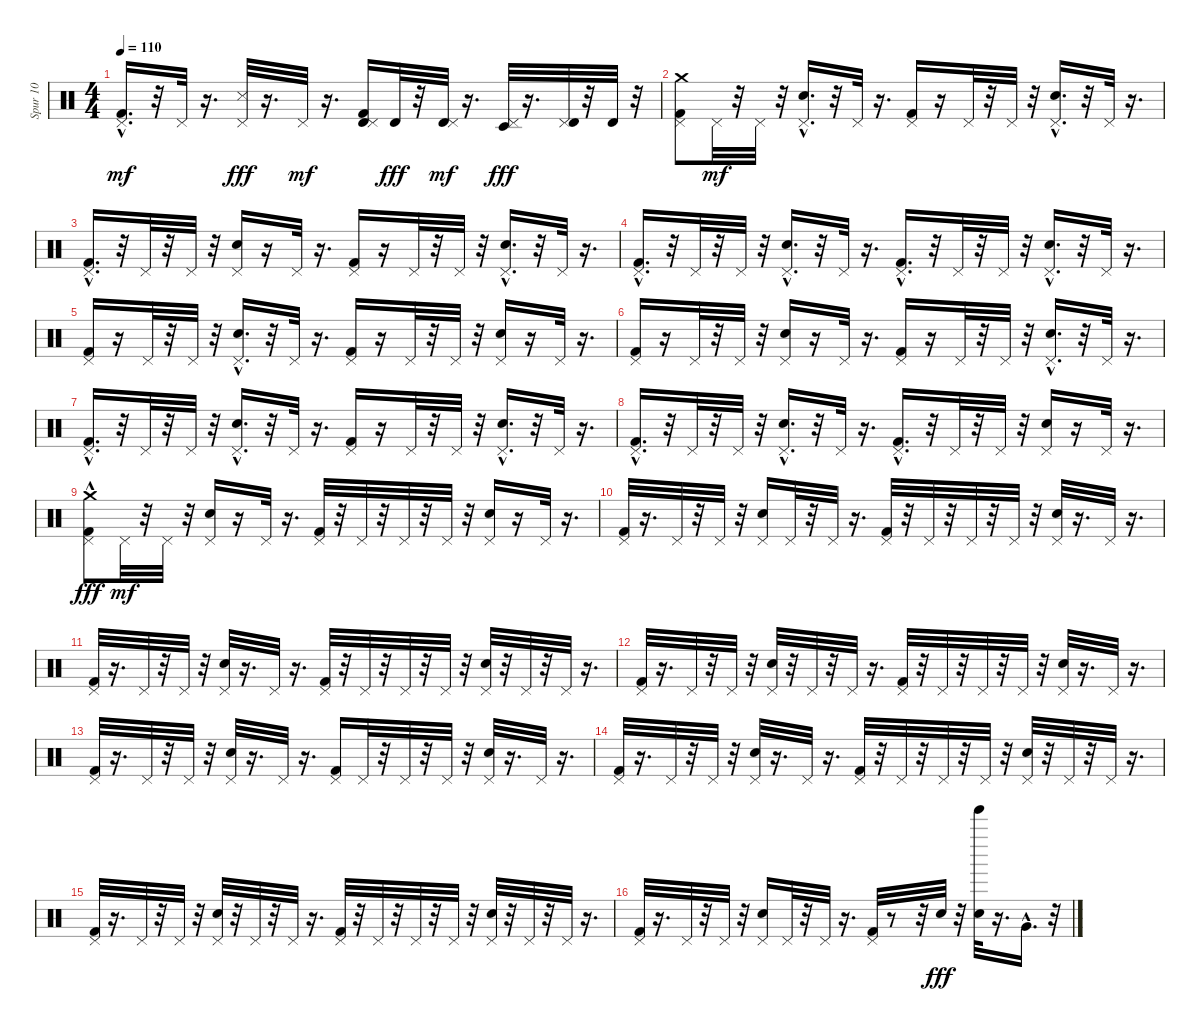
\track ("Spur 10" "Spur 10") {instrument percussion}
\staff {score}
\articulation defaults
\ts (4 4)
\tempo 110
\clef neutral
\ks c
("Kick (hit) 2"{hac} "Pedal Hi-Hat (hit)").16{d dy mf} r.32 "Pedal Hi-Hat (hit)".32 r.16{d} ("Pedal Hi-Hat (hit)" "Snare (side stick) 3").32{dy fff} r.16{d} "Pedal Hi-Hat (hit)".32{dy mf} r.16{d} ("Kick (hit) 2" "Timbale high (hit)" "Pedal Hi-Hat (hit)").16 "Timbale high (hit)".32{dy fff} r.32 ("Timbale high (hit)" "Pedal Hi-Hat (hit)").32{dy mf} r.16{d} ("Pedal Hi-Hat (hit)" "Timbale low (hit)").32{dy fff} r.16{d} ("Pedal Hi-Hat (hit)" "Timbale high (hit)").32 r.32 "Timbale high (hit)".32 r.32 |
("Kick (hit) 2" "Pedal Hi-Hat (hit)" "Crash medium (hit)").8 "Pedal Hi-Hat (hit)".32{dy mf} r.32 "Pedal Hi-Hat (hit)".32 r.32 ("Electric Snare (hit)"{hac} "Pedal Hi-Hat (hit)").16{d} r.32 "Pedal Hi-Hat (hit)".32 r.16{d} ("Kick (hit) 2" "Pedal Hi-Hat (hit)").16 r.16 "Pedal Hi-Hat (hit)".32 r.32 "Pedal Hi-Hat (hit)".32 r.32 ("Electric Snare (hit)"{hac} "Pedal Hi-Hat (hit)").16{d} r.32 "Pedal Hi-Hat (hit)".32 r.16{d} |
("Kick (hit) 2"{hac} "Pedal Hi-Hat (hit)").16{d} r.32 "Pedal Hi-Hat (hit)".32 r.32 "Pedal Hi-Hat (hit)".32 r.32 ("Electric Snare (hit)" "Pedal Hi-Hat (hit)").16 r.16 "Pedal Hi-Hat (hit)".32 r.16{d} ("Kick (hit) 2" "Pedal Hi-Hat (hit)").16 r.16 "Pedal Hi-Hat (hit)".32 r.32 "Pedal Hi-Hat (hit)".32 r.32 ("Electric Snare (hit)"{hac} "Pedal Hi-Hat (hit)").16{d} r.32 "Pedal Hi-Hat (hit)".32 r.16{d} |
("Kick (hit) 2"{hac} "Pedal Hi-Hat (hit)").16{d} r.32 "Pedal Hi-Hat (hit)".32 r.32 "Pedal Hi-Hat (hit)".32 r.32 ("Electric Snare (hit)"{hac} "Pedal Hi-Hat (hit)").16{d} r.32 "Pedal Hi-Hat (hit)".32 r.16{d} ("Kick (hit) 2"{hac} "Pedal Hi-Hat (hit)").16{d} r.32 "Pedal Hi-Hat (hit)".32 r.32 "Pedal Hi-Hat (hit)".32 r.32 ("Electric Snare (hit)"{hac} "Pedal Hi-Hat (hit)").16{d} r.32 "Pedal Hi-Hat (hit)".32 r.16{d} |
("Kick (hit) 2" "Pedal Hi-Hat (hit)").16 r.16 "Pedal Hi-Hat (hit)".32 r.32 "Pedal Hi-Hat (hit)".32 r.32 ("Electric Snare (hit)"{hac} "Pedal Hi-Hat (hit)").16{d} r.32 "Pedal Hi-Hat (hit)".32 r.16{d} ("Kick (hit) 2" "Pedal Hi-Hat (hit)").16 r.16 "Pedal Hi-Hat (hit)".32 r.32 "Pedal Hi-Hat (hit)".32 r.32 ("Electric Snare (hit)" "Pedal Hi-Hat (hit)").16 r.16 "Pedal Hi-Hat (hit)".32 r.16{d} |
("Kick (hit) 2" "Pedal Hi-Hat (hit)").16 r.16 "Pedal Hi-Hat (hit)".32 r.32 "Pedal Hi-Hat (hit)".32 r.32 ("Electric Snare (hit)" "Pedal Hi-Hat (hit)").16 r.16 "Pedal Hi-Hat (hit)".32 r.16{d} ("Kick (hit) 2" "Pedal Hi-Hat (hit)").16 r.16 "Pedal Hi-Hat (hit)".32 r.32 "Pedal Hi-Hat (hit)".32 r.32 ("Electric Snare (hit)"{hac} "Pedal Hi-Hat (hit)").16{d} r.32 "Pedal Hi-Hat (hit)".32 r.16{d} |
("Kick (hit) 2"{hac} "Pedal Hi-Hat (hit)").16{d} r.32 "Pedal Hi-Hat (hit)".32 r.32 "Pedal Hi-Hat (hit)".32 r.32 ("Electric Snare (hit)"{hac} "Pedal Hi-Hat (hit)").16{d} r.32 "Pedal Hi-Hat (hit)".32 r.16{d} ("Kick (hit) 2" "Pedal Hi-Hat (hit)").16 r.16 "Pedal Hi-Hat (hit)".32 r.32 "Pedal Hi-Hat (hit)".32 r.32 ("Electric Snare (hit)"{hac} "Pedal Hi-Hat (hit)").16{d} r.32 "Pedal Hi-Hat (hit)".32 r.16{d} |
("Kick (hit) 2"{hac} "Pedal Hi-Hat (hit)").16{d} r.32 "Pedal Hi-Hat (hit)".32 r.32 "Pedal Hi-Hat (hit)".32 r.32 ("Electric Snare (hit)"{hac} "Pedal Hi-Hat (hit)").16{d} r.32 "Pedal Hi-Hat (hit)".32 r.16{d} ("Kick (hit) 2"{hac} "Pedal Hi-Hat (hit)").16{d} r.32 "Pedal Hi-Hat (hit)".32 r.32 "Pedal Hi-Hat (hit)".32 r.32 ("Electric Snare (hit)" "Pedal Hi-Hat (hit)").16 r.16 "Pedal Hi-Hat (hit)".32 r.16{d} |
("Kick (hit) 2" "Pedal Hi-Hat (hit)" "Crash medium (hit)"{hac}).8{dy fff} "Pedal Hi-Hat (hit)".32{dy mf} r.32 "Pedal Hi-Hat (hit)".32 r.32 ("Electric Snare (hit)" "Pedal Hi-Hat (hit)").16 r.16 "Pedal Hi-Hat (hit)".32 r.16{d} ("Kick (hit) 2" "Pedal Hi-Hat (hit)").32 r.32 "Pedal Hi-Hat (hit)".32 r.32 "Pedal Hi-Hat (hit)".32 r.32 "Pedal Hi-Hat (hit)".32 r.32 ("Electric Snare (hit)" "Pedal Hi-Hat (hit)").16 r.16 "Pedal Hi-Hat (hit)".32 r.16{d} |
("Kick (hit) 2" "Pedal Hi-Hat (hit)").32 r.16{d} "Pedal Hi-Hat (hit)".32 r.32 "Pedal Hi-Hat (hit)".32 r.32 ("Electric Snare (hit)" "Pedal Hi-Hat (hit)").16 "Pedal Hi-Hat (hit)".32 r.32 "Pedal Hi-Hat (hit)".32 r.16{d} ("Kick (hit) 2" "Pedal Hi-Hat (hit)").32 r.32 "Pedal Hi-Hat (hit)".32 r.32 "Pedal Hi-Hat (hit)".32 r.32 "Pedal Hi-Hat (hit)".32 r.32 ("Electric Snare (hit)" "Pedal Hi-Hat (hit)").32 r.16{d} "Pedal Hi-Hat (hit)".32 r.16{d} |
("Kick (hit) 2" "Pedal Hi-Hat (hit)").32 r.16{d} "Pedal Hi-Hat (hit)".32 r.32 "Pedal Hi-Hat (hit)".32 r.32 ("Electric Snare (hit)" "Pedal Hi-Hat (hit)").32 r.16{d} "Pedal Hi-Hat (hit)".32 r.16{d} ("Kick (hit) 2" "Pedal Hi-Hat (hit)").32 r.32 "Pedal Hi-Hat (hit)".32 r.32 "Pedal Hi-Hat (hit)".32 r.32 "Pedal Hi-Hat (hit)".32 r.32 ("Electric Snare (hit)" "Pedal Hi-Hat (hit)").32 r.32 "Pedal Hi-Hat (hit)".32 r.32 "Pedal Hi-Hat (hit)".32 r.16{d} |
("Kick (hit) 2" "Pedal Hi-Hat (hit)").32 r.16{d} "Pedal Hi-Hat (hit)".32 r.32 "Pedal Hi-Hat (hit)".32 r.32 ("Electric Snare (hit)" "Pedal Hi-Hat (hit)").32 r.32 "Pedal Hi-Hat (hit)".32 r.32 "Pedal Hi-Hat (hit)".32 r.16{d} ("Kick (hit) 2" "Pedal Hi-Hat (hit)").32 r.32 "Pedal Hi-Hat (hit)".32 r.32 "Pedal Hi-Hat (hit)".32 r.32 "Pedal Hi-Hat (hit)".32 r.32 ("Electric Snare (hit)" "Pedal Hi-Hat (hit)").32 r.16{d} "Pedal Hi-Hat (hit)".32 r.16{d} |
("Kick (hit) 2" "Pedal Hi-Hat (hit)").32 r.16{d} "Pedal Hi-Hat (hit)".32 r.32 "Pedal Hi-Hat (hit)".32 r.32 ("Electric Snare (hit)" "Pedal Hi-Hat (hit)").32 r.16{d} "Pedal Hi-Hat (hit)".32 r.16{d} ("Kick (hit) 2" "Pedal Hi-Hat (hit)").16 "Pedal Hi-Hat (hit)".32 r.32 "Pedal Hi-Hat (hit)".32 r.32 "Pedal Hi-Hat (hit)".32 r.32 ("Electric Snare (hit)" "Pedal Hi-Hat (hit)").32 r.16{d} "Pedal Hi-Hat (hit)".32 r.16{d} |
("Kick (hit) 2" "Pedal Hi-Hat (hit)").32 r.16{d} "Pedal Hi-Hat (hit)".32 r.32 "Pedal Hi-Hat (hit)".32 r.32 ("Electric Snare (hit)" "Pedal Hi-Hat (hit)").32 r.16{d} "Pedal Hi-Hat (hit)".32 r.16{d} ("Kick (hit) 2" "Pedal Hi-Hat (hit)").32 r.32 "Pedal Hi-Hat (hit)".32 r.32 "Pedal Hi-Hat (hit)".32 r.32 "Pedal Hi-Hat (hit)".32 r.32 ("Electric Snare (hit)" "Pedal Hi-Hat (hit)").32 r.32 "Pedal Hi-Hat (hit)".32 r.32 "Pedal Hi-Hat (hit)".32 r.16{d} |
("Kick (hit) 2" "Pedal Hi-Hat (hit)").32 r.16{d} "Pedal Hi-Hat (hit)".32 r.32 "Pedal Hi-Hat (hit)".32 r.32 ("Electric Snare (hit)" "Pedal Hi-Hat (hit)").32 r.32 "Pedal Hi-Hat (hit)".32 r.32 "Pedal Hi-Hat (hit)".32 r.16{d} ("Kick (hit) 2" "Pedal Hi-Hat (hit)").32 r.32 "Pedal Hi-Hat (hit)".32 r.32 "Pedal Hi-Hat (hit)".32 r.32 "Pedal Hi-Hat (hit)".32 r.32 ("Electric Snare (hit)" "Pedal Hi-Hat (hit)").32 r.32 "Pedal Hi-Hat (hit)".32 r.32 "Pedal Hi-Hat (hit)".32 r.16{d} |
("Kick (hit) 2" "Pedal Hi-Hat (hit)").32 r.16{d} "Pedal Hi-Hat (hit)".32 r.32 "Pedal Hi-Hat (hit)".32 r.32 ("Electric Snare (hit)" "Pedal Hi-Hat (hit)").16 "Pedal Hi-Hat (hit)".32 r.32 "Pedal Hi-Hat (hit)".32 r.16{d} ("Kick (hit) 2" "Pedal Hi-Hat (hit)").32 r.8 r.32 "Electric Snare (hit)".32{dy fff} r.32 ("Electric Snare (hit)" "Tinkle Bell (hit)").32 r.16{d} "Very Low Tom (hit)"{hac}.16{d} r.32
